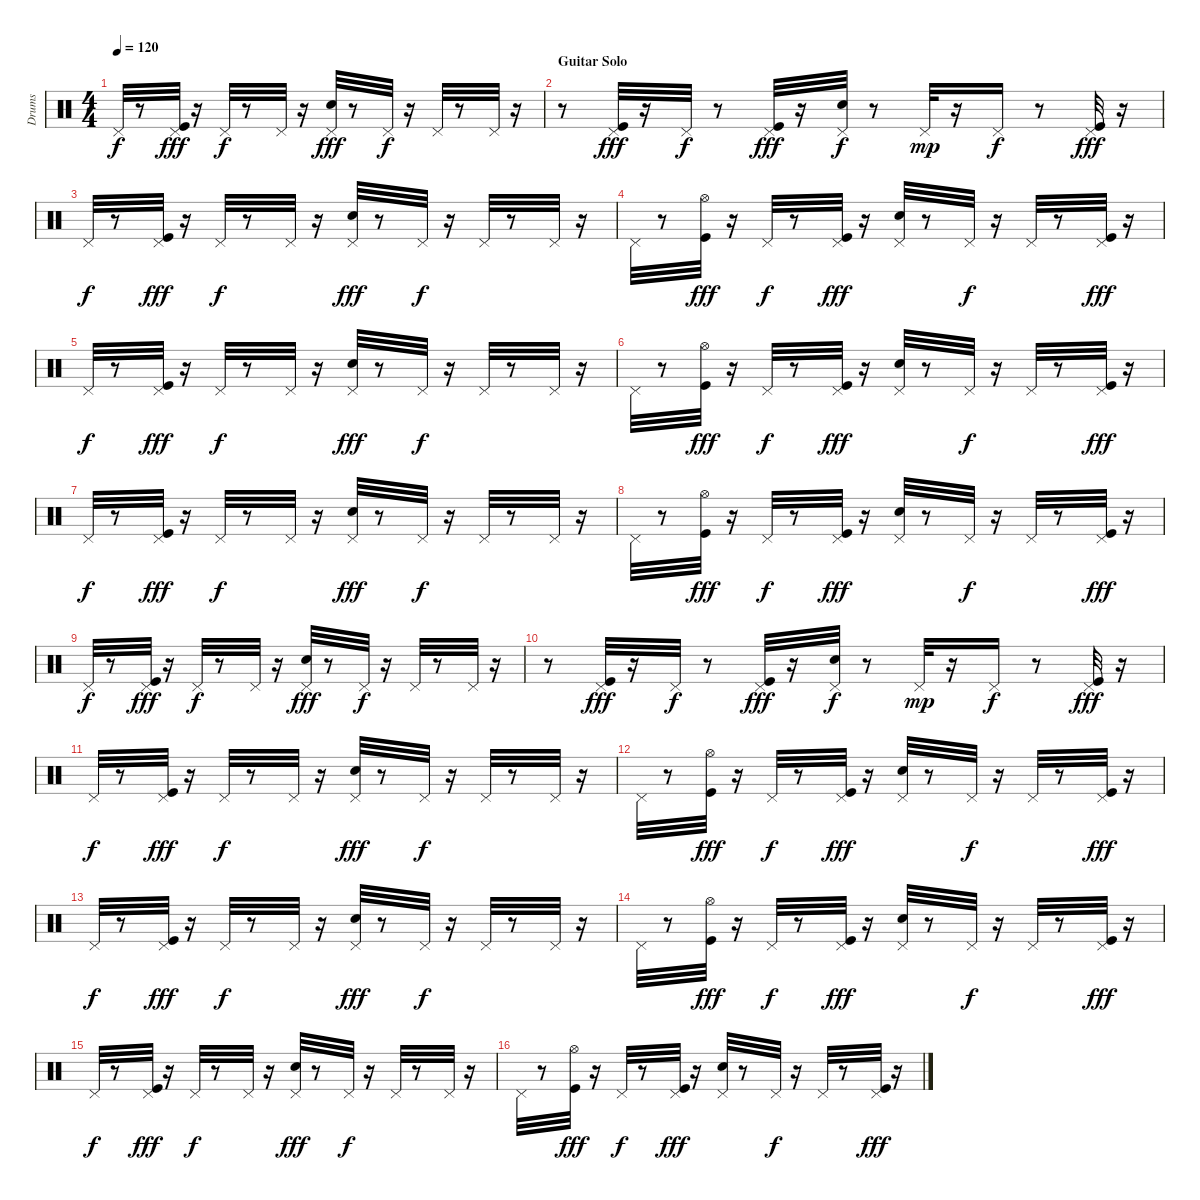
\track ("Drums" "Drums") {instrument percussion}
\staff {score}
\articulation defaults
\ts (4 4)
\tempo 120
\clef neutral
\ks c "Pedal Hi-Hat (hit)".32{dy f}
r.8 ("Kick (hit)" "Pedal Hi-Hat (hit)").32{dy fff} r.16 "Pedal Hi-Hat (hit)".32{dy f} r.8 "Pedal Hi-Hat (hit)".32 r.16 ("Pedal Hi-Hat (hit)" "Electric Snare (hit)").32{dy fff} r.8 "Pedal Hi-Hat (hit)".32{dy f} r.16 "Pedal Hi-Hat (hit)".32 r.8 "Pedal Hi-Hat (hit)".32 r.16 |
\section ("" "Guitar Solo")
r.8 ("Kick (hit)" "Pedal Hi-Hat (hit)").32{dy fff} r.16 "Pedal Hi-Hat (hit)".32{dy f} r.8 ("Kick (hit)" "Pedal Hi-Hat (hit)").32{dy fff} r.16 ("Electric Snare (hit)" "Pedal Hi-Hat (hit)").32{dy f} r.8 "Pedal Hi-Hat (hit)".32{dy mp} r.16 "Pedal Hi-Hat (hit)".16{dy f} r.8 ("Kick (hit)" "Pedal Hi-Hat (hit)").32{dy fff} r.16 |
"Pedal Hi-Hat (hit)".32{dy f} r.8 ("Kick (hit)" "Pedal Hi-Hat (hit)").32{dy fff} r.16 "Pedal Hi-Hat (hit)".32{dy f} r.8 "Pedal Hi-Hat (hit)".32 r.16 ("Pedal Hi-Hat (hit)" "Electric Snare (hit)").32{dy fff} r.8 "Pedal Hi-Hat (hit)".32{dy f} r.16 "Pedal Hi-Hat (hit)".32 r.8 "Pedal Hi-Hat (hit)".32 r.16 |
"Pedal Hi-Hat (hit)".32 r.8 ("Kick (hit)" "Hi-Hat (open)").32{dy fff} r.16 "Pedal Hi-Hat (hit)".32{dy f} r.8 ("Kick (hit)" "Pedal Hi-Hat (hit)").32{dy fff} r.16 ("Electric Snare (hit)" "Pedal Hi-Hat (hit)").32 r.8 "Pedal Hi-Hat (hit)".32{dy f} r.16 "Pedal Hi-Hat (hit)".32 r.8 ("Kick (hit)" "Pedal Hi-Hat (hit)").32{dy fff} r.16 |
"Pedal Hi-Hat (hit)".32{dy f} r.8 ("Kick (hit)" "Pedal Hi-Hat (hit)").32{dy fff} r.16 "Pedal Hi-Hat (hit)".32{dy f} r.8 "Pedal Hi-Hat (hit)".32 r.16 ("Pedal Hi-Hat (hit)" "Electric Snare (hit)").32{dy fff} r.8 "Pedal Hi-Hat (hit)".32{dy f} r.16 "Pedal Hi-Hat (hit)".32 r.8 "Pedal Hi-Hat (hit)".32 r.16 |
"Pedal Hi-Hat (hit)".32 r.8 ("Kick (hit)" "Hi-Hat (open)").32{dy fff} r.16 "Pedal Hi-Hat (hit)".32{dy f} r.8 ("Kick (hit)" "Pedal Hi-Hat (hit)").32{dy fff} r.16 ("Electric Snare (hit)" "Pedal Hi-Hat (hit)").32 r.8 "Pedal Hi-Hat (hit)".32{dy f} r.16 "Pedal Hi-Hat (hit)".32 r.8 ("Kick (hit)" "Pedal Hi-Hat (hit)").32{dy fff} r.16 |
"Pedal Hi-Hat (hit)".32{dy f} r.8 ("Kick (hit)" "Pedal Hi-Hat (hit)").32{dy fff} r.16 "Pedal Hi-Hat (hit)".32{dy f} r.8 "Pedal Hi-Hat (hit)".32 r.16 ("Pedal Hi-Hat (hit)" "Electric Snare (hit)").32{dy fff} r.8 "Pedal Hi-Hat (hit)".32{dy f} r.16 "Pedal Hi-Hat (hit)".32 r.8 "Pedal Hi-Hat (hit)".32 r.16 |
"Pedal Hi-Hat (hit)".32 r.8 ("Kick (hit)" "Hi-Hat (open)").32{dy fff} r.16 "Pedal Hi-Hat (hit)".32{dy f} r.8 ("Kick (hit)" "Pedal Hi-Hat (hit)").32{dy fff} r.16 ("Electric Snare (hit)" "Pedal Hi-Hat (hit)").32 r.8 "Pedal Hi-Hat (hit)".32{dy f} r.16 "Pedal Hi-Hat (hit)".32 r.8 ("Kick (hit)" "Pedal Hi-Hat (hit)").32{dy fff} r.16 |
"Pedal Hi-Hat (hit)".32{dy f} r.8 ("Kick (hit)" "Pedal Hi-Hat (hit)").32{dy fff} r.16 "Pedal Hi-Hat (hit)".32{dy f} r.8 "Pedal Hi-Hat (hit)".32 r.16 ("Pedal Hi-Hat (hit)" "Electric Snare (hit)").32{dy fff} r.8 "Pedal Hi-Hat (hit)".32{dy f} r.16 "Pedal Hi-Hat (hit)".32 r.8 "Pedal Hi-Hat (hit)".32 r.16 |
r.8 ("Kick (hit)" "Pedal Hi-Hat (hit)").32{dy fff} r.16 "Pedal Hi-Hat (hit)".32{dy f} r.8 ("Kick (hit)" "Pedal Hi-Hat (hit)").32{dy fff} r.16 ("Electric Snare (hit)" "Pedal Hi-Hat (hit)").32{dy f} r.8 "Pedal Hi-Hat (hit)".32{dy mp} r.16 "Pedal Hi-Hat (hit)".16{dy f} r.8 ("Kick (hit)" "Pedal Hi-Hat (hit)").32{dy fff} r.16 |
"Pedal Hi-Hat (hit)".32{dy f} r.8 ("Kick (hit)" "Pedal Hi-Hat (hit)").32{dy fff} r.16 "Pedal Hi-Hat (hit)".32{dy f} r.8 "Pedal Hi-Hat (hit)".32 r.16 ("Pedal Hi-Hat (hit)" "Electric Snare (hit)").32{dy fff} r.8 "Pedal Hi-Hat (hit)".32{dy f} r.16 "Pedal Hi-Hat (hit)".32 r.8 "Pedal Hi-Hat (hit)".32 r.16 |
"Pedal Hi-Hat (hit)".32 r.8 ("Kick (hit)" "Hi-Hat (open)").32{dy fff} r.16 "Pedal Hi-Hat (hit)".32{dy f} r.8 ("Kick (hit)" "Pedal Hi-Hat (hit)").32{dy fff} r.16 ("Electric Snare (hit)" "Pedal Hi-Hat (hit)").32 r.8 "Pedal Hi-Hat (hit)".32{dy f} r.16 "Pedal Hi-Hat (hit)".32 r.8 ("Kick (hit)" "Pedal Hi-Hat (hit)").32{dy fff} r.16 |
"Pedal Hi-Hat (hit)".32{dy f} r.8 ("Kick (hit)" "Pedal Hi-Hat (hit)").32{dy fff} r.16 "Pedal Hi-Hat (hit)".32{dy f} r.8 "Pedal Hi-Hat (hit)".32 r.16 ("Pedal Hi-Hat (hit)" "Electric Snare (hit)").32{dy fff} r.8 "Pedal Hi-Hat (hit)".32{dy f} r.16 "Pedal Hi-Hat (hit)".32 r.8 "Pedal Hi-Hat (hit)".32 r.16 |
"Pedal Hi-Hat (hit)".32 r.8 ("Kick (hit)" "Hi-Hat (open)").32{dy fff} r.16 "Pedal Hi-Hat (hit)".32{dy f} r.8 ("Kick (hit)" "Pedal Hi-Hat (hit)").32{dy fff} r.16 ("Electric Snare (hit)" "Pedal Hi-Hat (hit)").32 r.8 "Pedal Hi-Hat (hit)".32{dy f} r.16 "Pedal Hi-Hat (hit)".32 r.8 ("Kick (hit)" "Pedal Hi-Hat (hit)").32{dy fff} r.16 |
"Pedal Hi-Hat (hit)".32{dy f} r.8 ("Kick (hit)" "Pedal Hi-Hat (hit)").32{dy fff} r.16 "Pedal Hi-Hat (hit)".32{dy f} r.8 "Pedal Hi-Hat (hit)".32 r.16 ("Pedal Hi-Hat (hit)" "Electric Snare (hit)").32{dy fff} r.8 "Pedal Hi-Hat (hit)".32{dy f} r.16 "Pedal Hi-Hat (hit)".32 r.8 "Pedal Hi-Hat (hit)".32 r.16 |
"Pedal Hi-Hat (hit)".32 r.8 ("Kick (hit)" "Hi-Hat (open)").32{dy fff} r.16 "Pedal Hi-Hat (hit)".32{dy f} r.8 ("Kick (hit)" "Pedal Hi-Hat (hit)").32{dy fff} r.16 ("Electric Snare (hit)" "Pedal Hi-Hat (hit)").32 r.8 "Pedal Hi-Hat (hit)".32{dy f} r.16 "Pedal Hi-Hat (hit)".32 r.8 ("Kick (hit)" "Pedal Hi-Hat (hit)").32{dy fff} r.16
